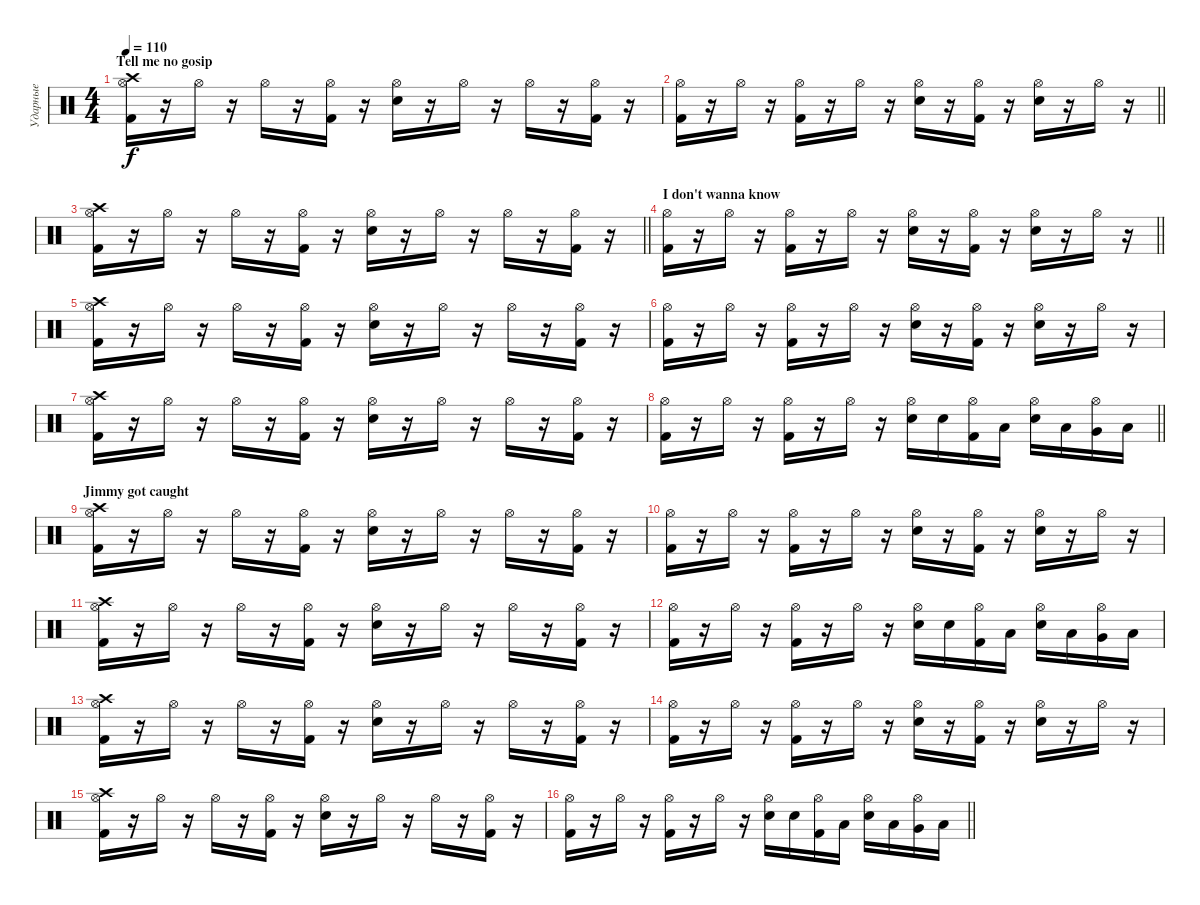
\track ("Ударные" "Ударные") {instrument percussion}
\staff {score}
\articulation defaults
\ts (4 4)
\section ("" "Tell me no gosip")
\tempo 110
\clef neutral
\ks c
("Crash high (hit)" "Hi-Hat (open)" "Kick (hit) 2").16{dy f} r.16 "Hi-Hat (open)".16 r.16 "Hi-Hat (open)".16 r.16 ("Hi-Hat (open)" "Kick (hit) 2").16 r.16 ("Hi-Hat (open)" "Electric Snare (hit)").16 r.16 "Hi-Hat (open)".16 r.16 "Hi-Hat (open)".16 r.16 ("Hi-Hat (open)" "Kick (hit) 2").16 r.16 |
\barLineRight lightlight
("Hi-Hat (open)" "Kick (hit) 2").16 r.16 "Hi-Hat (open)".16 r.16 ("Hi-Hat (open)" "Kick (hit) 2").16 r.16 "Hi-Hat (open)".16 r.16 ("Hi-Hat (open)" "Electric Snare (hit)").16 r.16 ("Hi-Hat (open)" "Kick (hit) 2").16 r.16 ("Hi-Hat (open)" "Electric Snare (hit)").16 r.16 "Hi-Hat (open)".16 r.16 |
\barLineRight lightlight
("Crash high (hit)" "Hi-Hat (open)" "Kick (hit) 2").16 r.16 "Hi-Hat (open)".16 r.16 "Hi-Hat (open)".16 r.16 ("Hi-Hat (open)" "Kick (hit) 2").16 r.16 ("Hi-Hat (open)" "Electric Snare (hit)").16 r.16 "Hi-Hat (open)".16 r.16 "Hi-Hat (open)".16 r.16 ("Hi-Hat (open)" "Kick (hit) 2").16 r.16 |
\section ("" "I don't wanna know")
\barLineRight lightlight
("Hi-Hat (open)" "Kick (hit) 2").16 r.16 "Hi-Hat (open)".16 r.16 ("Hi-Hat (open)" "Kick (hit) 2").16 r.16 "Hi-Hat (open)".16 r.16 ("Hi-Hat (open)" "Electric Snare (hit)").16 r.16 ("Hi-Hat (open)" "Kick (hit) 2").16 r.16 ("Hi-Hat (open)" "Electric Snare (hit)").16 r.16 "Hi-Hat (open)".16 r.16 |
("Crash high (hit)" "Hi-Hat (open)" "Kick (hit) 2").16 r.16 "Hi-Hat (open)".16 r.16 "Hi-Hat (open)".16 r.16 ("Hi-Hat (open)" "Kick (hit) 2").16 r.16 ("Hi-Hat (open)" "Electric Snare (hit)").16 r.16 "Hi-Hat (open)".16 r.16 "Hi-Hat (open)".16 r.16 ("Hi-Hat (open)" "Kick (hit) 2").16 r.16 |
("Hi-Hat (open)" "Kick (hit) 2").16 r.16 "Hi-Hat (open)".16 r.16 ("Hi-Hat (open)" "Kick (hit) 2").16 r.16 "Hi-Hat (open)".16 r.16 ("Hi-Hat (open)" "Electric Snare (hit)").16 r.16 ("Hi-Hat (open)" "Kick (hit) 2").16 r.16 ("Hi-Hat (open)" "Electric Snare (hit)").16 r.16 "Hi-Hat (open)".16 r.16 |
("Crash high (hit)" "Hi-Hat (open)" "Kick (hit) 2").16 r.16 "Hi-Hat (open)".16 r.16 "Hi-Hat (open)".16 r.16 ("Hi-Hat (open)" "Kick (hit) 2").16 r.16 ("Hi-Hat (open)" "Electric Snare (hit)").16 r.16 "Hi-Hat (open)".16 r.16 "Hi-Hat (open)".16 r.16 ("Hi-Hat (open)" "Kick (hit) 2").16 r.16 |
\barLineRight lightlight
("Hi-Hat (open)" "Kick (hit) 2").16 r.16 "Hi-Hat (open)".16 r.16 ("Hi-Hat (open)" "Kick (hit) 2").16 r.16 "Hi-Hat (open)".16 r.16 ("Hi-Hat (open)" "Electric Snare (hit)").16 "Electric Snare (hit)".16 ("Hi-Hat (open)" "Kick (hit) 2").16 "Low Floor Tom (hit)".16 ("Hi-Hat (open)" "Electric Snare (hit)").16 "Low Tom (hit)".16 ("Hi-Hat (open)" "Very Low Tom (hit)").16 "Low Floor Tom (hit)".16 |
\section ("" "Jimmy got caught")
("Crash high (hit)" "Hi-Hat (open)" "Kick (hit) 2").16 r.16 "Hi-Hat (open)".16 r.16 "Hi-Hat (open)".16 r.16 ("Hi-Hat (open)" "Kick (hit) 2").16 r.16 ("Hi-Hat (open)" "Electric Snare (hit)").16 r.16 "Hi-Hat (open)".16 r.16 "Hi-Hat (open)".16 r.16 ("Hi-Hat (open)" "Kick (hit) 2").16 r.16 |
("Hi-Hat (open)" "Kick (hit) 2").16 r.16 "Hi-Hat (open)".16 r.16 ("Hi-Hat (open)" "Kick (hit) 2").16 r.16 "Hi-Hat (open)".16 r.16 ("Hi-Hat (open)" "Electric Snare (hit)").16 r.16 ("Hi-Hat (open)" "Kick (hit) 2").16 r.16 ("Hi-Hat (open)" "Electric Snare (hit)").16 r.16 "Hi-Hat (open)".16 r.16 |
("Crash high (hit)" "Hi-Hat (open)" "Kick (hit) 2").16 r.16 "Hi-Hat (open)".16 r.16 "Hi-Hat (open)".16 r.16 ("Hi-Hat (open)" "Kick (hit) 2").16 r.16 ("Hi-Hat (open)" "Electric Snare (hit)").16 r.16 "Hi-Hat (open)".16 r.16 "Hi-Hat (open)".16 r.16 ("Hi-Hat (open)" "Kick (hit) 2").16 r.16 |
("Hi-Hat (open)" "Kick (hit) 2").16 r.16 "Hi-Hat (open)".16 r.16 ("Hi-Hat (open)" "Kick (hit) 2").16 r.16 "Hi-Hat (open)".16 r.16 ("Hi-Hat (open)" "Electric Snare (hit)").16 "Electric Snare (hit)".16 ("Hi-Hat (open)" "Kick (hit) 2").16 "Low Floor Tom (hit)".16 ("Hi-Hat (open)" "Electric Snare (hit)").16 "Low Tom (hit)".16 ("Hi-Hat (open)" "Very Low Tom (hit)").16 "Low Floor Tom (hit)".16 |
("Crash high (hit)" "Hi-Hat (open)" "Kick (hit) 2").16 r.16 "Hi-Hat (open)".16 r.16 "Hi-Hat (open)".16 r.16 ("Hi-Hat (open)" "Kick (hit) 2").16 r.16 ("Hi-Hat (open)" "Electric Snare (hit)").16 r.16 "Hi-Hat (open)".16 r.16 "Hi-Hat (open)".16 r.16 ("Hi-Hat (open)" "Kick (hit) 2").16 r.16 |
("Hi-Hat (open)" "Kick (hit) 2").16 r.16 "Hi-Hat (open)".16 r.16 ("Hi-Hat (open)" "Kick (hit) 2").16 r.16 "Hi-Hat (open)".16 r.16 ("Hi-Hat (open)" "Electric Snare (hit)").16 r.16 ("Hi-Hat (open)" "Kick (hit) 2").16 r.16 ("Hi-Hat (open)" "Electric Snare (hit)").16 r.16 "Hi-Hat (open)".16 r.16 |
("Crash high (hit)" "Hi-Hat (open)" "Kick (hit) 2").16 r.16 "Hi-Hat (open)".16 r.16 "Hi-Hat (open)".16 r.16 ("Hi-Hat (open)" "Kick (hit) 2").16 r.16 ("Hi-Hat (open)" "Electric Snare (hit)").16 r.16 "Hi-Hat (open)".16 r.16 "Hi-Hat (open)".16 r.16 ("Hi-Hat (open)" "Kick (hit) 2").16 r.16 |
\barLineRight lightlight
("Hi-Hat (open)" "Kick (hit) 2").16 r.16 "Hi-Hat (open)".16 r.16 ("Hi-Hat (open)" "Kick (hit) 2").16 r.16 "Hi-Hat (open)".16 r.16 ("Hi-Hat (open)" "Electric Snare (hit)").16 "Electric Snare (hit)".16 ("Hi-Hat (open)" "Kick (hit) 2").16 "Low Floor Tom (hit)".16 ("Hi-Hat (open)" "Electric Snare (hit)").16 "Low Tom (hit)".16 ("Hi-Hat (open)" "Very Low Tom (hit)").16 "Low Floor Tom (hit)".16
